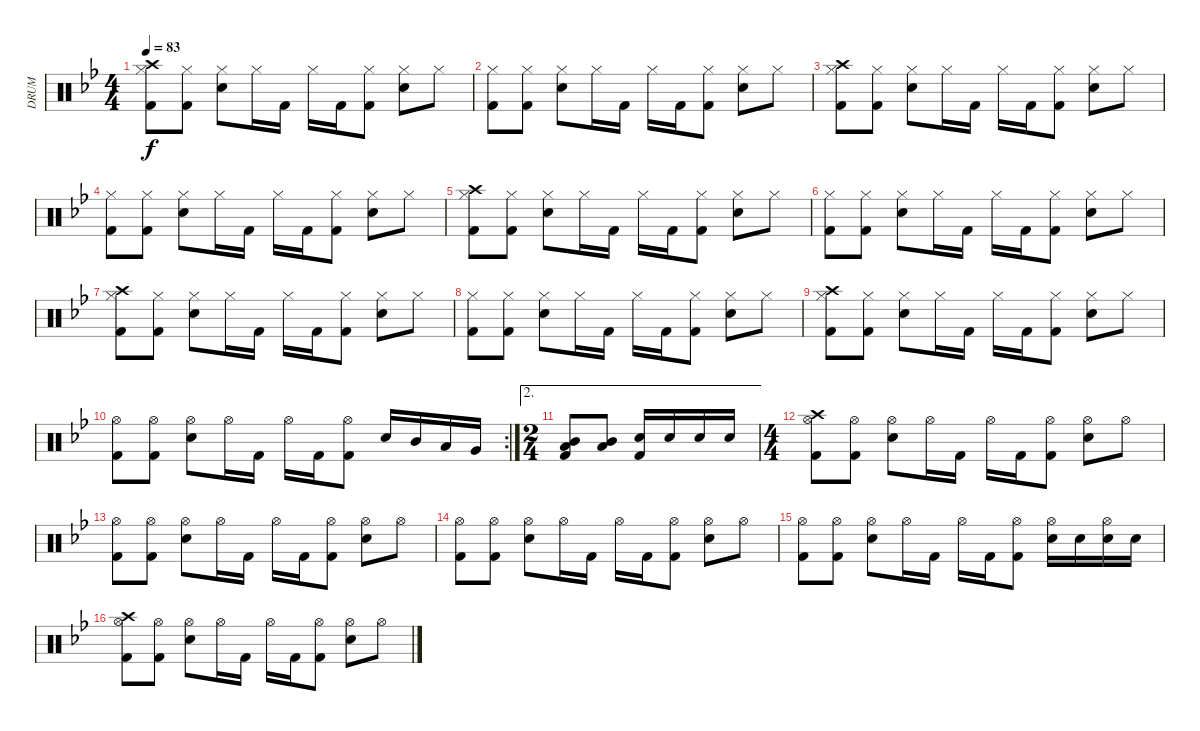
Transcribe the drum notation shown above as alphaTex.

\track ("DRUM" "DRUM") {instrument percussion}
\staff {score}
\articulation defaults
\ts (4 4)
\tempo 83
\clef neutral
\ks gminor
("Hi-Hat (closed)" "Crash high (hit)" "Kick (hit) 2").8{dy f} ("Hi-Hat (closed)" "Kick (hit) 2").8 ("Hi-Hat (closed)" "Electric Snare (hit)").8 "Hi-Hat (closed)".16 "Kick (hit) 2".16 "Hi-Hat (closed)".16 "Kick (hit) 2".16 ("Hi-Hat (closed)" "Kick (hit) 2").8 ("Hi-Hat (closed)" "Electric Snare (hit)").8 "Hi-Hat (closed)".8 |
("Hi-Hat (closed)" "Kick (hit) 2").8 ("Hi-Hat (closed)" "Kick (hit) 2").8 ("Hi-Hat (closed)" "Electric Snare (hit)").8 "Hi-Hat (closed)".16 "Kick (hit) 2".16 "Hi-Hat (closed)".16 "Kick (hit) 2".16 ("Hi-Hat (closed)" "Kick (hit) 2").8 ("Hi-Hat (closed)" "Electric Snare (hit)").8 "Hi-Hat (closed)".8 |
("Hi-Hat (closed)" "Crash high (hit)" "Kick (hit) 2").8 ("Hi-Hat (closed)" "Kick (hit) 2").8 ("Hi-Hat (closed)" "Electric Snare (hit)").8 "Hi-Hat (closed)".16 "Kick (hit) 2".16 "Hi-Hat (closed)".16 "Kick (hit) 2".16 ("Hi-Hat (closed)" "Kick (hit) 2").8 ("Hi-Hat (closed)" "Electric Snare (hit)").8 "Hi-Hat (closed)".8 |
("Hi-Hat (closed)" "Kick (hit) 2").8 ("Hi-Hat (closed)" "Kick (hit) 2").8 ("Hi-Hat (closed)" "Electric Snare (hit)").8 "Hi-Hat (closed)".16 "Kick (hit) 2".16 "Hi-Hat (closed)".16 "Kick (hit) 2".16 ("Hi-Hat (closed)" "Kick (hit) 2").8 ("Hi-Hat (closed)" "Electric Snare (hit)").8 "Hi-Hat (closed)".8 |
("Hi-Hat (closed)" "Crash high (hit)" "Kick (hit) 2").8 ("Hi-Hat (closed)" "Kick (hit) 2").8 ("Hi-Hat (closed)" "Electric Snare (hit)").8 "Hi-Hat (closed)".16 "Kick (hit) 2".16 "Hi-Hat (closed)".16 "Kick (hit) 2".16 ("Hi-Hat (closed)" "Kick (hit) 2").8 ("Hi-Hat (closed)" "Electric Snare (hit)").8 "Hi-Hat (closed)".8 |
("Hi-Hat (closed)" "Kick (hit) 2").8 ("Hi-Hat (closed)" "Kick (hit) 2").8 ("Hi-Hat (closed)" "Electric Snare (hit)").8 "Hi-Hat (closed)".16 "Kick (hit) 2".16 "Hi-Hat (closed)".16 "Kick (hit) 2".16 ("Hi-Hat (closed)" "Kick (hit) 2").8 ("Hi-Hat (closed)" "Electric Snare (hit)").8 "Hi-Hat (closed)".8 |
("Hi-Hat (closed)" "Crash high (hit)" "Kick (hit) 2").8 ("Hi-Hat (closed)" "Kick (hit) 2").8 ("Hi-Hat (closed)" "Electric Snare (hit)").8 "Hi-Hat (closed)".16 "Kick (hit) 2".16 "Hi-Hat (closed)".16 "Kick (hit) 2".16 ("Hi-Hat (closed)" "Kick (hit) 2").8 ("Hi-Hat (closed)" "Electric Snare (hit)").8 "Hi-Hat (closed)".8 |
("Hi-Hat (closed)" "Kick (hit) 2").8 ("Hi-Hat (closed)" "Kick (hit) 2").8 ("Hi-Hat (closed)" "Electric Snare (hit)").8 "Hi-Hat (closed)".16 "Kick (hit) 2".16 "Hi-Hat (closed)".16 "Kick (hit) 2".16 ("Hi-Hat (closed)" "Kick (hit) 2").8 ("Hi-Hat (closed)" "Electric Snare (hit)").8 "Hi-Hat (closed)".8 |
("Hi-Hat (closed)" "Crash high (hit)" "Kick (hit) 2").8 ("Hi-Hat (closed)" "Kick (hit) 2").8 ("Hi-Hat (closed)" "Electric Snare (hit)").8 "Hi-Hat (closed)".16 "Kick (hit) 2".16 "Hi-Hat (closed)".16 "Kick (hit) 2".16 ("Hi-Hat (closed)" "Kick (hit) 2").8 ("Hi-Hat (closed)" "Electric Snare (hit)").8 "Hi-Hat (closed)".8 |
\rc 2
("Hi-Hat (open)" "Kick (hit) 2").8 ("Hi-Hat (open)" "Kick (hit) 2").8 ("Hi-Hat (open)" "Electric Snare (hit)").8 "Hi-Hat (open)".16 "Kick (hit) 2".16 "Hi-Hat (open)".16 "Kick (hit) 2".16 ("Hi-Hat (open)" "Kick (hit) 2").8 "Electric Snare (hit)".16 "Mid Tom (hit)".16 "Low Tom (hit)".16 "Very Low Tom (hit)".16 |
\ae 2
\ts (2 4)
("Mid Tom (hit)" "Low Tom (hit)" "Kick (hit) 2").8 ("Mid Tom (hit)" "Low Tom (hit)").8 ("Electric Snare (hit)" "Kick (hit) 2").16 "Electric Snare (hit)".16 "Electric Snare (hit)".16 "Electric Snare (hit)".16 |
\ts (4 4)
("Hi-Hat (open)" "Crash high (hit)" "Kick (hit) 2").8 ("Hi-Hat (open)" "Kick (hit) 2").8 ("Hi-Hat (open)" "Electric Snare (hit)").8 "Hi-Hat (open)".16 "Kick (hit) 2".16 "Hi-Hat (open)".16 "Kick (hit) 2".16 ("Hi-Hat (open)" "Kick (hit) 2").8 ("Hi-Hat (open)" "Electric Snare (hit)").8 "Hi-Hat (open)".8 |
("Hi-Hat (open)" "Kick (hit) 2").8 ("Hi-Hat (open)" "Kick (hit) 2").8 ("Hi-Hat (open)" "Electric Snare (hit)").8 "Hi-Hat (open)".16 "Kick (hit) 2".16 "Hi-Hat (open)".16 "Kick (hit) 2".16 ("Hi-Hat (open)" "Kick (hit) 2").8 ("Hi-Hat (open)" "Electric Snare (hit)").8 "Hi-Hat (open)".8 |
("Hi-Hat (open)" "Kick (hit) 2").8 ("Hi-Hat (open)" "Kick (hit) 2").8 ("Hi-Hat (open)" "Electric Snare (hit)").8 "Hi-Hat (open)".16 "Kick (hit) 2".16 "Hi-Hat (open)".16 "Kick (hit) 2".16 ("Hi-Hat (open)" "Kick (hit) 2").8 ("Hi-Hat (open)" "Electric Snare (hit)").8 "Hi-Hat (open)".8 |
("Hi-Hat (open)" "Kick (hit) 2").8 ("Hi-Hat (open)" "Kick (hit) 2").8 ("Hi-Hat (open)" "Electric Snare (hit)").8 "Hi-Hat (open)".16 "Kick (hit) 2".16 "Hi-Hat (open)".16 "Kick (hit) 2".16 ("Hi-Hat (open)" "Kick (hit) 2").8 ("Hi-Hat (open)" "Electric Snare (hit)").16 "Electric Snare (hit)".16 ("Hi-Hat (open)" "Electric Snare (hit)").16 "Electric Snare (hit)".16 |
("Hi-Hat (open)" "Crash high (hit)" "Kick (hit) 2").8 ("Hi-Hat (open)" "Kick (hit) 2").8 ("Hi-Hat (open)" "Electric Snare (hit)").8 "Hi-Hat (open)".16 "Kick (hit) 2".16 "Hi-Hat (open)".16 "Kick (hit) 2".16 ("Hi-Hat (open)" "Kick (hit) 2").8 ("Hi-Hat (open)" "Electric Snare (hit)").8 "Hi-Hat (open)".8
